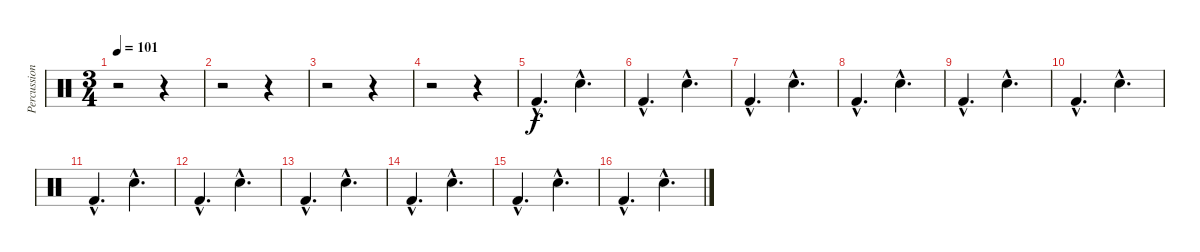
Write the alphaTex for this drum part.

\track ("Percussions" "Percussion") {instrument percussion}
\staff {score}
\articulation defaults
\ts (3 4)
\tempo 101
\clef neutral
\ks c
r.2{dy f} r.4 |
r.2 r.4 |
r.2 r.4 |
r.2 r.4 |
"Kick (hit) 2"{hac}.4{d} "Electric Snare (hit)"{hac}.4{d} |
"Kick (hit) 2"{hac}.4{d} "Electric Snare (hit)"{hac}.4{d} |
"Kick (hit) 2"{hac}.4{d} "Electric Snare (hit)"{hac}.4{d} |
"Kick (hit) 2"{hac}.4{d} "Electric Snare (hit)"{hac}.4{d} |
"Kick (hit) 2"{hac}.4{d} "Electric Snare (hit)"{hac}.4{d} |
"Kick (hit) 2"{hac}.4{d} "Electric Snare (hit)"{hac}.4{d} |
"Kick (hit) 2"{hac}.4{d} "Electric Snare (hit)"{hac}.4{d} |
"Kick (hit) 2"{hac}.4{d} "Electric Snare (hit)"{hac}.4{d} |
"Kick (hit) 2"{hac}.4{d} "Electric Snare (hit)"{hac}.4{d} |
"Kick (hit) 2"{hac}.4{d} "Electric Snare (hit)"{hac}.4{d} |
"Kick (hit) 2"{hac}.4{d} "Electric Snare (hit)"{hac}.4{d} |
"Kick (hit) 2"{hac}.4{d} "Electric Snare (hit)"{hac}.4{d}
